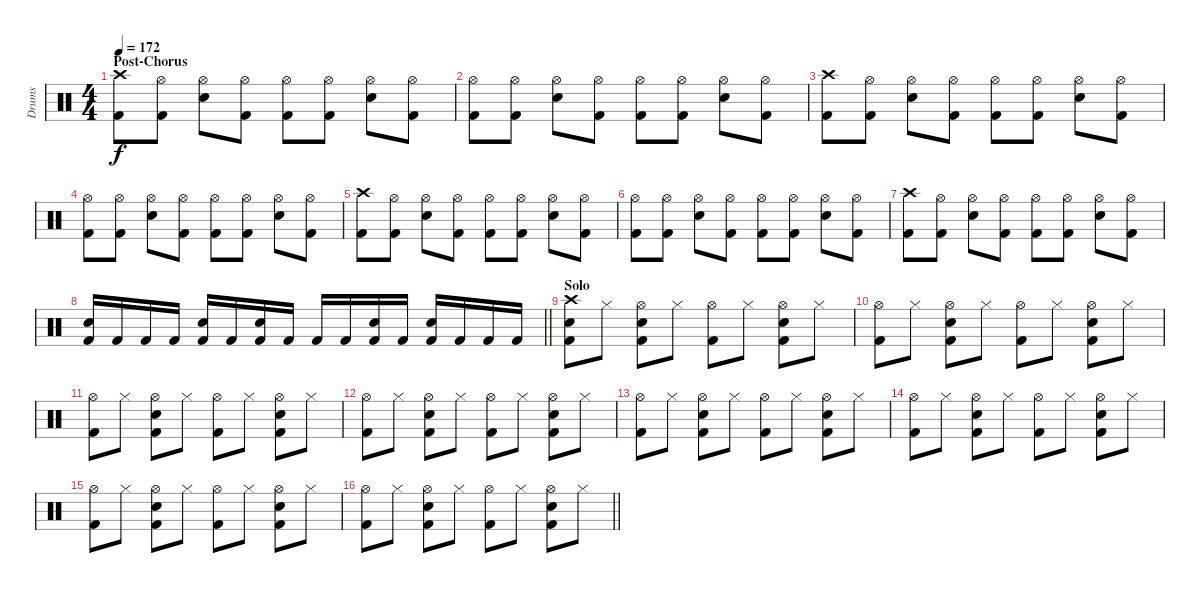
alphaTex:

\track ("Drums" "Drums") {instrument percussion}
\staff {score}
\articulation defaults
\ts (4 4)
\section ("" "Post-Chorus")
\tempo 172
\clef neutral
\ks c
("Kick (hit) 2" "Crash high (hit)").8{dy f} ("Kick (hit) 2" "Hi-Hat (open)").8 ("Electric Snare (hit)" "Hi-Hat (open)").8 ("Kick (hit) 2" "Hi-Hat (open)").8 ("Kick (hit) 2" "Hi-Hat (open)").8 ("Kick (hit) 2" "Hi-Hat (open)").8 ("Electric Snare (hit)" "Hi-Hat (open)").8 ("Kick (hit) 2" "Hi-Hat (open)").8 |
("Kick (hit) 2" "Hi-Hat (open)").8 ("Kick (hit) 2" "Hi-Hat (open)").8 ("Electric Snare (hit)" "Hi-Hat (open)").8 ("Kick (hit) 2" "Hi-Hat (open)").8 ("Kick (hit) 2" "Hi-Hat (open)").8 ("Kick (hit) 2" "Hi-Hat (open)").8 ("Electric Snare (hit)" "Hi-Hat (open)").8 ("Kick (hit) 2" "Hi-Hat (open)").8 |
("Kick (hit) 2" "Crash high (hit)").8 ("Kick (hit) 2" "Hi-Hat (open)").8 ("Electric Snare (hit)" "Hi-Hat (open)").8 ("Kick (hit) 2" "Hi-Hat (open)").8 ("Kick (hit) 2" "Hi-Hat (open)").8 ("Kick (hit) 2" "Hi-Hat (open)").8 ("Electric Snare (hit)" "Hi-Hat (open)").8 ("Kick (hit) 2" "Hi-Hat (open)").8 |
("Kick (hit) 2" "Hi-Hat (open)").8 ("Kick (hit) 2" "Hi-Hat (open)").8 ("Electric Snare (hit)" "Hi-Hat (open)").8 ("Kick (hit) 2" "Hi-Hat (open)").8 ("Kick (hit) 2" "Hi-Hat (open)").8 ("Kick (hit) 2" "Hi-Hat (open)").8 ("Electric Snare (hit)" "Hi-Hat (open)").8 ("Kick (hit) 2" "Hi-Hat (open)").8 |
("Kick (hit) 2" "Crash high (hit)").8 ("Kick (hit) 2" "Hi-Hat (open)").8 ("Electric Snare (hit)" "Hi-Hat (open)").8 ("Kick (hit) 2" "Hi-Hat (open)").8 ("Kick (hit) 2" "Hi-Hat (open)").8 ("Kick (hit) 2" "Hi-Hat (open)").8 ("Electric Snare (hit)" "Hi-Hat (open)").8 ("Kick (hit) 2" "Hi-Hat (open)").8 |
("Kick (hit) 2" "Hi-Hat (open)").8 ("Kick (hit) 2" "Hi-Hat (open)").8 ("Electric Snare (hit)" "Hi-Hat (open)").8 ("Kick (hit) 2" "Hi-Hat (open)").8 ("Kick (hit) 2" "Hi-Hat (open)").8 ("Kick (hit) 2" "Hi-Hat (open)").8 ("Electric Snare (hit)" "Hi-Hat (open)").8 ("Kick (hit) 2" "Hi-Hat (open)").8 |
("Kick (hit) 2" "Crash high (hit)").8 ("Kick (hit) 2" "Hi-Hat (open)").8 ("Electric Snare (hit)" "Hi-Hat (open)").8 ("Kick (hit) 2" "Hi-Hat (open)").8 ("Kick (hit) 2" "Hi-Hat (open)").8 ("Kick (hit) 2" "Hi-Hat (open)").8 ("Electric Snare (hit)" "Hi-Hat (open)").8 ("Kick (hit) 2" "Hi-Hat (open)").8 |
\barLineRight lightlight
("Kick (hit) 2" "Electric Snare (hit)").16 "Kick (hit) 2".16 "Kick (hit) 2".16 "Kick (hit) 2".16 ("Kick (hit) 2" "Electric Snare (hit)").16 "Kick (hit) 2".16 ("Kick (hit) 2" "Electric Snare (hit)").16 "Kick (hit) 2".16 "Kick (hit) 2".16 "Kick (hit) 2".16 ("Kick (hit) 2" "Electric Snare (hit)").16 "Kick (hit) 2".16 ("Kick (hit) 2" "Electric Snare (hit)").16 "Kick (hit) 2".16 "Kick (hit) 2".16 "Kick (hit) 2".16 |
\section ("" "Solo")
("Kick (hit) 2" "Electric Snare (hit)" "Crash high (hit)").8 "Hi-Hat (closed)".8 ("Electric Snare (hit)" "Kick (hit) 2" "Hi-Hat (open)").8 "Hi-Hat (closed)".8 ("Hi-Hat (open)" "Kick (hit) 2").8 "Hi-Hat (closed)".8 ("Electric Snare (hit)" "Kick (hit) 2" "Hi-Hat (open)").8 "Hi-Hat (closed)".8 |
("Kick (hit) 2" "Hi-Hat (open)").8 "Hi-Hat (closed)".8 ("Electric Snare (hit)" "Kick (hit) 2" "Hi-Hat (open)").8 "Hi-Hat (closed)".8 ("Hi-Hat (open)" "Kick (hit) 2").8 "Hi-Hat (closed)".8 ("Electric Snare (hit)" "Kick (hit) 2" "Hi-Hat (open)").8 "Hi-Hat (closed)".8 |
("Kick (hit) 2" "Hi-Hat (open)").8 "Hi-Hat (closed)".8 ("Electric Snare (hit)" "Kick (hit) 2" "Hi-Hat (open)").8 "Hi-Hat (closed)".8 ("Hi-Hat (open)" "Kick (hit) 2").8 "Hi-Hat (closed)".8 ("Electric Snare (hit)" "Kick (hit) 2" "Hi-Hat (open)").8 "Hi-Hat (closed)".8 |
("Kick (hit) 2" "Hi-Hat (open)").8 "Hi-Hat (closed)".8 ("Electric Snare (hit)" "Kick (hit) 2" "Hi-Hat (open)").8 "Hi-Hat (closed)".8 ("Hi-Hat (open)" "Kick (hit) 2").8 "Hi-Hat (closed)".8 ("Electric Snare (hit)" "Kick (hit) 2" "Hi-Hat (open)").8 "Hi-Hat (closed)".8 |
("Kick (hit) 2" "Hi-Hat (open)").8 "Hi-Hat (closed)".8 ("Electric Snare (hit)" "Kick (hit) 2" "Hi-Hat (open)").8 "Hi-Hat (closed)".8 ("Hi-Hat (open)" "Kick (hit) 2").8 "Hi-Hat (closed)".8 ("Electric Snare (hit)" "Kick (hit) 2" "Hi-Hat (open)").8 "Hi-Hat (closed)".8 |
("Kick (hit) 2" "Hi-Hat (open)").8 "Hi-Hat (closed)".8 ("Electric Snare (hit)" "Kick (hit) 2" "Hi-Hat (open)").8 "Hi-Hat (closed)".8 ("Hi-Hat (open)" "Kick (hit) 2").8 "Hi-Hat (closed)".8 ("Electric Snare (hit)" "Kick (hit) 2" "Hi-Hat (open)").8 "Hi-Hat (closed)".8 |
("Kick (hit) 2" "Hi-Hat (open)").8 "Hi-Hat (closed)".8 ("Electric Snare (hit)" "Kick (hit) 2" "Hi-Hat (open)").8 "Hi-Hat (closed)".8 ("Hi-Hat (open)" "Kick (hit) 2").8 "Hi-Hat (closed)".8 ("Electric Snare (hit)" "Kick (hit) 2" "Hi-Hat (open)").8 "Hi-Hat (closed)".8 |
\barLineRight lightlight
("Kick (hit) 2" "Hi-Hat (open)").8 "Hi-Hat (closed)".8 ("Electric Snare (hit)" "Kick (hit) 2" "Hi-Hat (open)").8 "Hi-Hat (closed)".8 ("Hi-Hat (open)" "Kick (hit) 2").8 "Hi-Hat (closed)".8 ("Electric Snare (hit)" "Kick (hit) 2" "Hi-Hat (open)").8 "Hi-Hat (closed)".8
